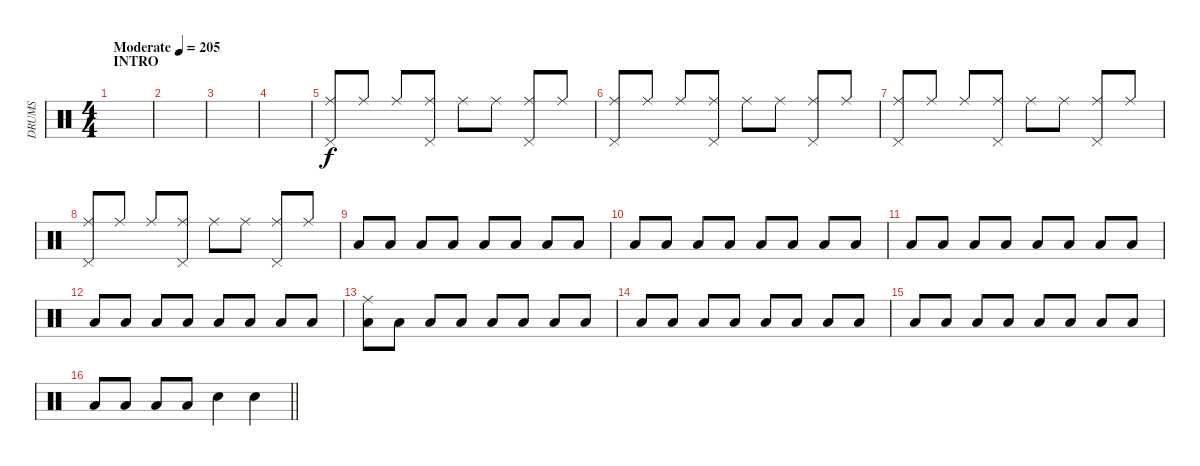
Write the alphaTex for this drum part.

\track ("DRUMS" "DRUMS") {instrument percussion}
\staff {score}
\articulation defaults
\ts (4 4)
\section ("" "INTRO")
\tempo (205 "Moderate")
\clef neutral
\ks c
|
|
|
|
("Ride (middle)" "Pedal Hi-Hat (hit)").8 "Ride (middle)".8 "Ride (middle)".8 ("Ride (middle)" "Pedal Hi-Hat (hit)").8 "Ride (middle)".8 "Ride (middle)".8 ("Ride (middle)" "Pedal Hi-Hat (hit)").8 "Ride (middle)".8 |
("Ride (middle)" "Pedal Hi-Hat (hit)").8 "Ride (middle)".8 "Ride (middle)".8 ("Ride (middle)" "Pedal Hi-Hat (hit)").8 "Ride (middle)".8 "Ride (middle)".8 ("Ride (middle)" "Pedal Hi-Hat (hit)").8 "Ride (middle)".8 |
("Ride (middle)" "Pedal Hi-Hat (hit)").8 "Ride (middle)".8 "Ride (middle)".8 ("Ride (middle)" "Pedal Hi-Hat (hit)").8 "Ride (middle)".8 "Ride (middle)".8 ("Ride (middle)" "Pedal Hi-Hat (hit)").8 "Ride (middle)".8 |
("Ride (middle)" "Pedal Hi-Hat (hit)").8 "Ride (middle)".8 "Ride (middle)".8 ("Ride (middle)" "Pedal Hi-Hat (hit)").8 "Ride (middle)".8 "Ride (middle)".8 ("Ride (middle)" "Pedal Hi-Hat (hit)").8 "Ride (middle)".8 |
"Low Floor Tom (hit)".8 "Low Floor Tom (hit)".8 "Low Floor Tom (hit)".8 "Low Floor Tom (hit)".8 "Low Floor Tom (hit)".8 "Low Floor Tom (hit)".8 "Low Floor Tom (hit)".8 "Low Floor Tom (hit)".8 |
"Low Floor Tom (hit)".8 "Low Floor Tom (hit)".8 "Low Floor Tom (hit)".8 "Low Floor Tom (hit)".8 "Low Floor Tom (hit)".8 "Low Floor Tom (hit)".8 "Low Floor Tom (hit)".8 "Low Floor Tom (hit)".8 |
"Low Floor Tom (hit)".8 "Low Floor Tom (hit)".8 "Low Floor Tom (hit)".8 "Low Floor Tom (hit)".8 "Low Floor Tom (hit)".8 "Low Floor Tom (hit)".8 "Low Floor Tom (hit)".8 "Low Floor Tom (hit)".8 |
"Low Floor Tom (hit)".8 "Low Floor Tom (hit)".8 "Low Floor Tom (hit)".8 "Low Floor Tom (hit)".8 "Low Floor Tom (hit)".8 "Low Floor Tom (hit)".8 "Low Floor Tom (hit)".8 "Low Floor Tom (hit)".8 |
("Ride (middle)" "Low Floor Tom (hit)").8 "Low Floor Tom (hit)".8 "Low Floor Tom (hit)".8 "Low Floor Tom (hit)".8 "Low Floor Tom (hit)".8 "Low Floor Tom (hit)".8 "Low Floor Tom (hit)".8 "Low Floor Tom (hit)".8 |
"Low Floor Tom (hit)".8 "Low Floor Tom (hit)".8 "Low Floor Tom (hit)".8 "Low Floor Tom (hit)".8 "Low Floor Tom (hit)".8 "Low Floor Tom (hit)".8 "Low Floor Tom (hit)".8 "Low Floor Tom (hit)".8 |
"Low Floor Tom (hit)".8 "Low Floor Tom (hit)".8 "Low Floor Tom (hit)".8 "Low Floor Tom (hit)".8 "Low Floor Tom (hit)".8 "Low Floor Tom (hit)".8 "Low Floor Tom (hit)".8 "Low Floor Tom (hit)".8 |
\barLineRight lightlight "Low Floor Tom (hit)".8 "Low Floor Tom (hit)".8 "Low Floor Tom (hit)".8 "Low Floor Tom (hit)".8 "Electric Snare (hit)".4 "Electric Snare (hit)".4
